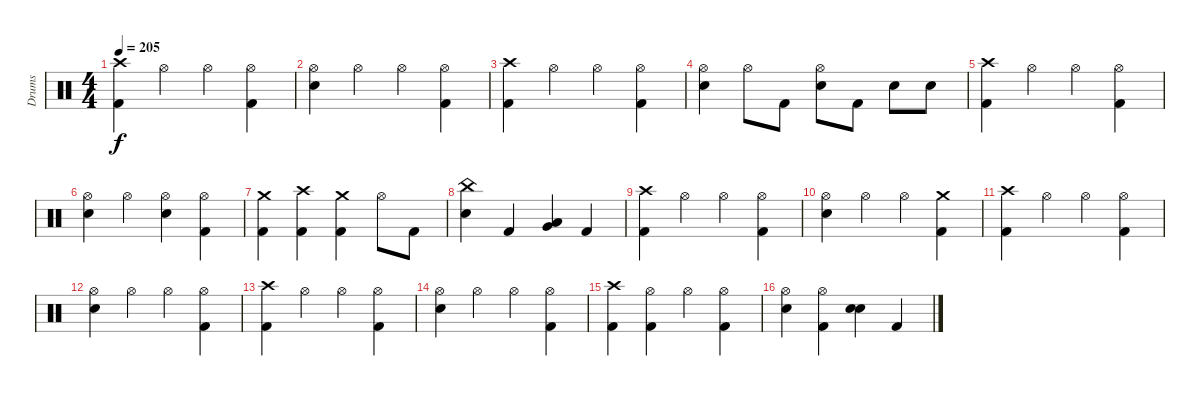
\track ("Drums" "Drums") {instrument percussion bank 169}
\staff {score}
\articulation defaults
\ts (4 4)
\tempo 205
\clef neutral
\ks c
("Crash high (hit)" "Kick (hit) 2").4{dy f} "Hi-Hat (open)".4 "Hi-Hat (open)".4 ("Hi-Hat (open)" "Kick (hit) 2").4 |
("Hi-Hat (open)" "Snare (hit) 2").4 "Hi-Hat (open)".4 "Hi-Hat (open)".4 ("Hi-Hat (open)" "Kick (hit) 2").4 |
("Crash high (hit)" "Kick (hit) 2").4 "Hi-Hat (open)".4 "Hi-Hat (open)".4 ("Hi-Hat (open)" "Kick (hit) 2").4 |
("Hi-Hat (open)" "Snare (hit) 2").4 "Hi-Hat (open)".8 "Kick (hit) 2".8 ("Hi-Hat (open)" "Snare (hit) 2").8 "Kick (hit) 2".8 "Snare (hit) 2".8 "Snare (hit) 2".8 |
("Crash high (hit)" "Kick (hit) 2").4 "Hi-Hat (open)".4 "Hi-Hat (open)".4 ("Hi-Hat (open)" "Kick (hit) 2").4 |
("Hi-Hat (open)" "Snare (hit) 2").4 "Hi-Hat (open)".4 ("Hi-Hat (open)" "Snare (hit) 2").4 ("Hi-Hat (open)" "Kick (hit) 2").4 |
("Crash medium (hit)" "Kick (hit) 2").4 ("Crash high (hit)" "Kick (hit) 2").4 ("Crash medium (hit)" "Kick (hit) 2").4 "Hi-Hat (open)".8 "Kick (hit) 2".8 |
("China (hit)" "Snare (hit) 2").4 "Kick (hit) 2".4 ("Very Low Tom (hit)" "Low Floor Tom (hit)").4 "Kick (hit) 2".4 |
("Crash high (hit)" "Kick (hit) 2").4 "Hi-Hat (open)".4 "Hi-Hat (open)".4 ("Hi-Hat (open)" "Kick (hit) 2").4 |
("Hi-Hat (open)" "Snare (hit) 2").4 "Hi-Hat (open)".4 "Hi-Hat (open)".4 ("Crash medium (hit)" "Kick (hit) 2").4 |
("Crash high (hit)" "Kick (hit) 2").4 "Hi-Hat (open)".4 "Hi-Hat (open)".4 ("Hi-Hat (open)" "Kick (hit) 2").4 |
("Hi-Hat (open)" "Snare (hit) 2").4 "Hi-Hat (open)".4 "Hi-Hat (open)".4 ("Hi-Hat (open)" "Kick (hit) 2").4 |
("Crash high (hit)" "Kick (hit) 2").4 "Hi-Hat (open)".4 "Hi-Hat (open)".4 ("Hi-Hat (open)" "Kick (hit) 2").4 |
("Hi-Hat (open)" "Snare (hit) 2").4 "Hi-Hat (open)".4 "Hi-Hat (open)".4 ("Hi-Hat (open)" "Kick (hit) 2").4 |
("Crash high (hit)" "Kick (hit) 2").4 ("Hi-Hat (open)" "Kick (hit) 2").4 "Hi-Hat (open)".4 ("Hi-Hat (open)" "Kick (hit) 2").4 |
("Hi-Hat (open)" "Snare (hit) 2").4 ("Hi-Hat (open)" "Kick (hit) 2").4 ("Snare (hit) 2" "Snare (hit) 2").4 "Kick (hit) 2".4
